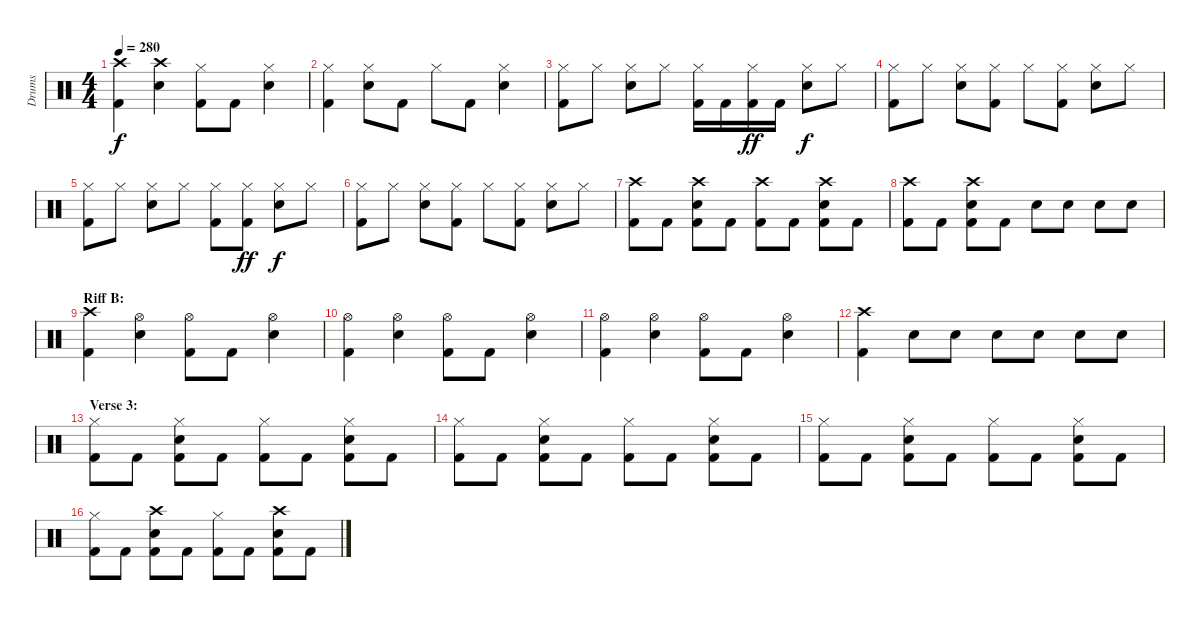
\track ("Drums" "Drums") {instrument percussion}
\staff {score}
\articulation defaults
\ts (4 4)
\tempo 280
\clef neutral
\ks c
("Crash high (hit)" "Kick (hit) 2").4{dy f} ("Crash high (hit)" "Snare (hit) 2").4 ("Hi-Hat (closed)" "Kick (hit) 2").8 "Kick (hit) 2".8 ("Hi-Hat (closed)" "Snare (hit) 2").4 |
("Hi-Hat (closed)" "Kick (hit) 2").4 ("Hi-Hat (closed)" "Snare (hit) 2").8 "Kick (hit) 2".8 "Hi-Hat (closed)".8 "Kick (hit) 2".8 ("Hi-Hat (closed)" "Snare (hit) 2").4 |
("Hi-Hat (closed)" "Kick (hit) 2").8 "Hi-Hat (closed)".8 ("Hi-Hat (closed)" "Snare (hit) 2").8 "Hi-Hat (closed)".8 ("Hi-Hat (closed)" "Kick (hit) 2").16 "Kick (hit) 2".16 ("Hi-Hat (closed)" "Kick (hit) 2").16{dy ff} "Kick (hit) 2".16 ("Hi-Hat (closed)" "Snare (hit) 2").8{dy f} "Hi-Hat (closed)".8 |
("Hi-Hat (closed)" "Kick (hit) 2").8 "Hi-Hat (closed)".8 ("Hi-Hat (closed)" "Snare (hit) 2").8 ("Hi-Hat (closed)" "Kick (hit) 2").8 "Hi-Hat (closed)".8 ("Hi-Hat (closed)" "Kick (hit) 2").8 ("Hi-Hat (closed)" "Snare (hit) 2").8 "Hi-Hat (closed)".8 |
("Hi-Hat (closed)" "Kick (hit) 2").8 "Hi-Hat (closed)".8 ("Hi-Hat (closed)" "Snare (hit) 2").8 "Hi-Hat (closed)".8 ("Hi-Hat (closed)" "Kick (hit) 2").8 ("Hi-Hat (closed)" "Kick (hit) 2").8{dy ff} ("Hi-Hat (closed)" "Snare (hit) 2").8{dy f} "Hi-Hat (closed)".8 |
("Hi-Hat (closed)" "Kick (hit) 2").8 "Hi-Hat (closed)".8 ("Hi-Hat (closed)" "Snare (hit) 2").8 ("Hi-Hat (closed)" "Kick (hit) 2").8 "Hi-Hat (closed)".8 ("Hi-Hat (closed)" "Kick (hit) 2").8 ("Hi-Hat (closed)" "Snare (hit) 2").8 "Hi-Hat (closed)".8 |
("Crash high (hit)" "Kick (hit) 2").8 "Kick (hit) 2".8 ("Crash high (hit)" "Snare (hit) 2" "Kick (hit) 2").8 "Kick (hit) 2".8 ("Crash high (hit)" "Kick (hit) 2").8 "Kick (hit) 2".8 ("Crash high (hit)" "Snare (hit) 2" "Kick (hit) 2").8 "Kick (hit) 2".8 |
("Crash high (hit)" "Kick (hit) 2").8 "Kick (hit) 2".8 ("Crash high (hit)" "Snare (hit) 2" "Kick (hit) 2").8 "Kick (hit) 2".8 "Snare (hit) 2".8 "Snare (hit) 2".8 "Snare (hit) 2".8 "Snare (hit) 2".8 |
\section ("" "Riff B:")
("Crash high (hit)" "Kick (hit) 2").4 ("Hi-Hat (open)" "Snare (hit) 2").4 ("Hi-Hat (open)" "Kick (hit) 2").8 "Kick (hit) 2".8 ("Hi-Hat (open)" "Snare (hit) 2").4 |
("Hi-Hat (open)" "Kick (hit) 2").4 ("Hi-Hat (open)" "Snare (hit) 2").4 ("Hi-Hat (open)" "Kick (hit) 2").8 "Kick (hit) 2".8 ("Hi-Hat (open)" "Snare (hit) 2").4 |
("Hi-Hat (open)" "Kick (hit) 2").4 ("Hi-Hat (open)" "Snare (hit) 2").4 ("Hi-Hat (open)" "Kick (hit) 2").8 "Kick (hit) 2".8 ("Hi-Hat (open)" "Snare (hit) 2").4 |
("Crash high (hit)" "Kick (hit) 2").4 "Snare (hit) 2".8 "Snare (hit) 2".8 "Snare (hit) 2".8 "Snare (hit) 2".8 "Snare (hit) 2".8 "Snare (hit) 2".8 |
\section ("" "Verse 3:")
("Hi-Hat (closed)" "Kick (hit) 2").8 "Kick (hit) 2".8 ("Hi-Hat (closed)" "Snare (hit) 2" "Kick (hit) 2").8 "Kick (hit) 2".8 ("Hi-Hat (closed)" "Kick (hit) 2").8 "Kick (hit) 2".8 ("Hi-Hat (closed)" "Snare (hit) 2" "Kick (hit) 2").8 "Kick (hit) 2".8 |
("Hi-Hat (closed)" "Kick (hit) 2").8 "Kick (hit) 2".8 ("Hi-Hat (closed)" "Snare (hit) 2" "Kick (hit) 2").8 "Kick (hit) 2".8 ("Hi-Hat (closed)" "Kick (hit) 2").8 "Kick (hit) 2".8 ("Hi-Hat (closed)" "Snare (hit) 2" "Kick (hit) 2").8 "Kick (hit) 2".8 |
("Hi-Hat (closed)" "Kick (hit) 2").8 "Kick (hit) 2".8 ("Hi-Hat (closed)" "Snare (hit) 2" "Kick (hit) 2").8 "Kick (hit) 2".8 ("Hi-Hat (closed)" "Kick (hit) 2").8 "Kick (hit) 2".8 ("Hi-Hat (closed)" "Snare (hit) 2" "Kick (hit) 2").8 "Kick (hit) 2".8 |
("Hi-Hat (closed)" "Kick (hit) 2").8 "Kick (hit) 2".8 ("Crash high (hit)" "Snare (hit) 2" "Kick (hit) 2").8 "Kick (hit) 2".8 ("Hi-Hat (closed)" "Kick (hit) 2").8 "Kick (hit) 2".8 ("Crash high (hit)" "Snare (hit) 2" "Kick (hit) 2").8 "Kick (hit) 2".8
